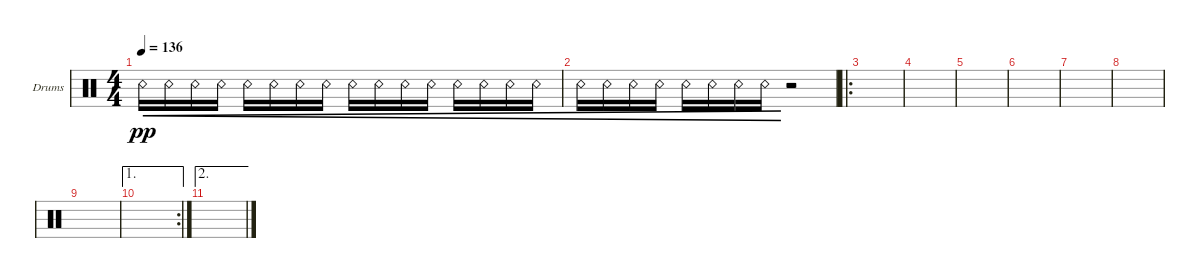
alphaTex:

\defaultSystemsLayout 4
\bracketExtendMode groupsimilarinstruments
\firstSystemTrackNameOrientation horizontal
\otherSystemsTrackNameOrientation horizontal
\track ("Drums" "Drums") {instrument percussion}
\staff {score}
\articulation defaults
\ts (4 4)
\tempo 136
\clef neutral
\scale
0.333333
\ks c "Snare (rim shot)".16{cre dy pp} "Snare (rim shot)".16{cre} "Snare (rim shot)".16{cre} "Snare (rim shot)".16{cre} "Snare (rim shot)".16{cre} "Snare (rim shot)".16{cre} "Snare (rim shot)".16{cre} "Snare (rim shot)".16{cre} "Snare (rim shot)".16{cre} "Snare (rim shot)".16{cre} "Snare (rim shot)".16{cre} "Snare (rim shot)".16{cre} "Snare (rim shot)".16{cre} "Snare (rim shot)".16{cre} "Snare (rim shot)".16{cre} "Snare (rim shot)".16{cre}
|
\scale
0.333333 "Snare (rim shot)".16{cre} "Snare (rim shot)".16{cre} "Snare (rim shot)".16{cre} "Snare (rim shot)".16{cre} "Snare (rim shot)".16{cre} "Snare (rim shot)".16{cre} "Snare (rim shot)".16{cre} "Snare (rim shot)".16{cre} r.2 |
\ro
\scale
0.333333 |
\scale
0.333333 |
\scale
0.333333 |
\scale
0.333333 |
\scale
0.333333 |
\scale
0.333333 |
|
\ae 1
\rc 2
|
\ae 2
